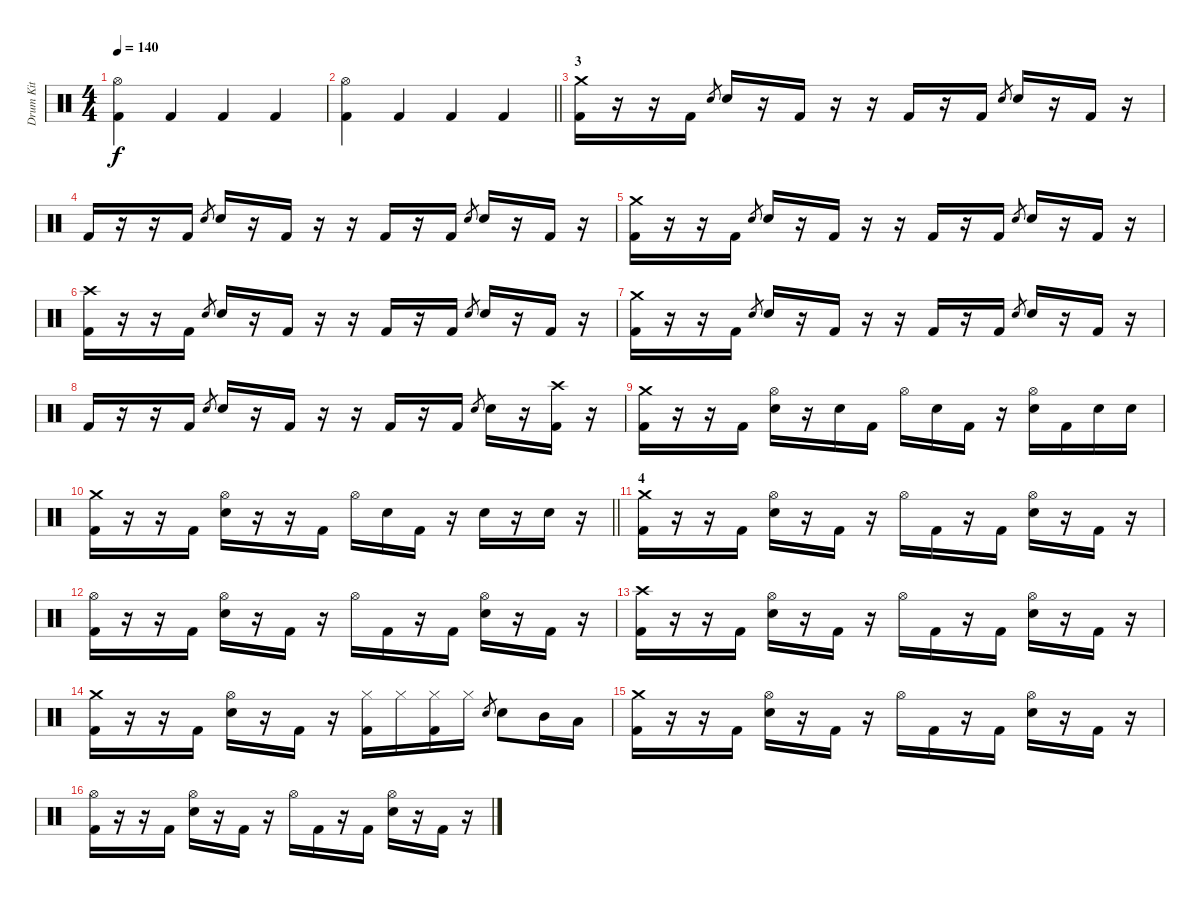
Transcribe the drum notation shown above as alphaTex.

\track ("Drum Kit" "Drum Kit") {instrument percussion}
\staff {score}
\articulation defaults
\ts (4 4)
\tempo 140
\clef neutral
\ks c
("Hi-Hat (open)" "Kick (hit) 2").4{dy f} "Kick (hit) 2".4 "Kick (hit) 2".4 "Kick (hit) 2".4 |
\barLineRight lightlight
("Hi-Hat (open)" "Kick (hit) 2").4 "Kick (hit) 2".4 "Kick (hit) 2".4 "Kick (hit) 2".4 |
\section ("" "3")
("Crash medium (hit)" "Kick (hit) 2").16 r.16 r.16 "Kick (hit) 2".16 "Electric Snare (hit)".8{gr} "Electric Snare (hit)".16 r.16 "Kick (hit) 2".16 r.16 r.16 "Kick (hit) 2".16 r.16 "Kick (hit) 2".16 "Electric Snare (hit)".8{gr} "Electric Snare (hit)".16 r.16 "Kick (hit) 2".16 r.16 |
"Kick (hit) 2".16 r.16 r.16 "Kick (hit) 2".16 "Electric Snare (hit)".8{gr} "Electric Snare (hit)".16 r.16 "Kick (hit) 2".16 r.16 r.16 "Kick (hit) 2".16 r.16 "Kick (hit) 2".16 "Electric Snare (hit)".8{gr} "Electric Snare (hit)".16 r.16 "Kick (hit) 2".16 r.16 |
("Crash medium (hit)" "Kick (hit) 2").16 r.16 r.16 "Kick (hit) 2".16 "Electric Snare (hit)".8{gr} "Electric Snare (hit)".16 r.16 "Kick (hit) 2".16 r.16 r.16 "Kick (hit) 2".16 r.16 "Kick (hit) 2".16 "Electric Snare (hit)".8{gr} "Electric Snare (hit)".16 r.16 "Kick (hit) 2".16 r.16 |
("Crash high (hit)" "Kick (hit) 2").16 r.16 r.16 "Kick (hit) 2".16 "Electric Snare (hit)".8{gr} "Electric Snare (hit)".16 r.16 "Kick (hit) 2".16 r.16 r.16 "Kick (hit) 2".16 r.16 "Kick (hit) 2".16 "Electric Snare (hit)".8{gr} "Electric Snare (hit)".16 r.16 "Kick (hit) 2".16 r.16 |
("Crash medium (hit)" "Kick (hit) 2").16 r.16 r.16 "Kick (hit) 2".16 "Electric Snare (hit)".8{gr} "Electric Snare (hit)".16 r.16 "Kick (hit) 2".16 r.16 r.16 "Kick (hit) 2".16 r.16 "Kick (hit) 2".16 "Electric Snare (hit)".8{gr} "Electric Snare (hit)".16 r.16 "Kick (hit) 2".16 r.16 |
"Kick (hit) 2".16 r.16 r.16 "Kick (hit) 2".16 "Electric Snare (hit)".8{gr} "Electric Snare (hit)".16 r.16 "Kick (hit) 2".16 r.16 r.16 "Kick (hit) 2".16 r.16 "Kick (hit) 2".16 "Electric Snare (hit)".8{gr} "Electric Snare (hit)".16 r.16 ("Crash high (hit)" "Kick (hit) 2").16 r.16 |
("Crash medium (hit)" "Kick (hit) 2").16 r.16 r.16 "Kick (hit) 2".16 ("Hi-Hat (open)" "Electric Snare (hit)").16 r.16 "Electric Snare (hit)".16 "Kick (hit) 2".16 "Hi-Hat (open)".16 "Electric Snare (hit)".16 "Kick (hit) 2".16 r.16 ("Hi-Hat (open)" "Electric Snare (hit)").16 "Kick (hit) 2".16 "Electric Snare (hit)".16 "Electric Snare (hit)".16 |
\barLineRight lightlight
("Crash medium (hit)" "Kick (hit) 2").16 r.16 r.16 "Kick (hit) 2".16 ("Hi-Hat (open)" "Electric Snare (hit)").16 r.16 r.16 "Kick (hit) 2".16 "Hi-Hat (open)".16 "Electric Snare (hit)".16 "Kick (hit) 2".16 r.16 "Electric Snare (hit)".16 r.16 "Electric Snare (hit)".16 r.16 |
\section ("" "4")
("Crash medium (hit)" "Kick (hit) 2").16 r.16 r.16 "Kick (hit) 2".16 ("Hi-Hat (open)" "Electric Snare (hit)").16 r.16 "Kick (hit) 2".16 r.16 "Hi-Hat (open)".16 "Kick (hit) 2".16 r.16 "Kick (hit) 2".16 ("Hi-Hat (open)" "Electric Snare (hit)").16 r.16 "Kick (hit) 2".16 r.16 |
("Hi-Hat (open)" "Kick (hit) 2").16 r.16 r.16 "Kick (hit) 2".16 ("Hi-Hat (open)" "Electric Snare (hit)").16 r.16 "Kick (hit) 2".16 r.16 "Hi-Hat (open)".16 "Kick (hit) 2".16 r.16 "Kick (hit) 2".16 ("Hi-Hat (open)" "Electric Snare (hit)").16 r.16 "Kick (hit) 2".16 r.16 |
("Crash high (hit)" "Kick (hit) 2").16 r.16 r.16 "Kick (hit) 2".16 ("Hi-Hat (open)" "Electric Snare (hit)").16 r.16 "Kick (hit) 2".16 r.16 "Hi-Hat (open)".16 "Kick (hit) 2".16 r.16 "Kick (hit) 2".16 ("Hi-Hat (open)" "Electric Snare (hit)").16 r.16 "Kick (hit) 2".16 r.16 |
("Crash medium (hit)" "Kick (hit) 2").16 r.16 r.16 "Kick (hit) 2".16 ("Hi-Hat (open)" "Electric Snare (hit)").16 r.16 "Kick (hit) 2".16 r.16 ("Hi-Hat (closed)" "Kick (hit) 2").16 "Hi-Hat (closed)".16 ("Hi-Hat (closed)" "Kick (hit) 2").16 "Hi-Hat (closed)".16 "Electric Snare (hit)".8{gr} "Electric Snare (hit)".8 "Mid Tom (hit)".16 "Low Tom (hit)".16 |
("Crash medium (hit)" "Kick (hit) 2").16 r.16 r.16 "Kick (hit) 2".16 ("Hi-Hat (open)" "Electric Snare (hit)").16 r.16 "Kick (hit) 2".16 r.16 "Hi-Hat (open)".16 "Kick (hit) 2".16 r.16 "Kick (hit) 2".16 ("Hi-Hat (open)" "Electric Snare (hit)").16 r.16 "Kick (hit) 2".16 r.16 |
("Hi-Hat (open)" "Kick (hit) 2").16 r.16 r.16 "Kick (hit) 2".16 ("Hi-Hat (open)" "Electric Snare (hit)").16 r.16 "Kick (hit) 2".16 r.16 "Hi-Hat (open)".16 "Kick (hit) 2".16 r.16 "Kick (hit) 2".16 ("Hi-Hat (open)" "Electric Snare (hit)").16 r.16 "Kick (hit) 2".16 r.16
